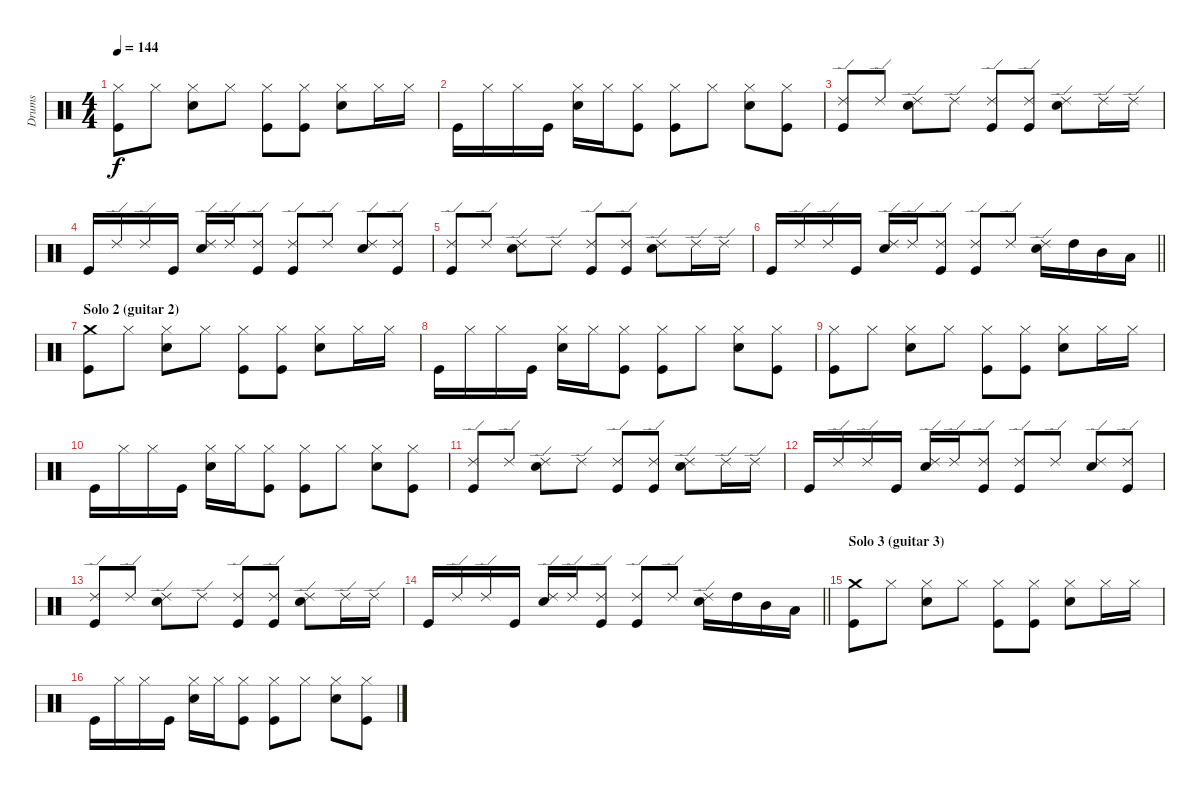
\track ("Drums" "Drums") {instrument percussion}
\staff {score}
\articulation defaults
\ts (4 4)
\tempo 144
\clef neutral
\ks c
("Hi-Hat (closed)" "Kick (hit)").8{dy f} "Hi-Hat (closed)".8 ("Hi-Hat (closed)" "Snare (hit) 2").8 "Hi-Hat (closed)".8 ("Hi-Hat (closed)" "Kick (hit)").8 ("Hi-Hat (closed)" "Kick (hit)").8 ("Hi-Hat (closed)" "Snare (hit) 2").8 "Hi-Hat (closed)".16 "Hi-Hat (closed)".16 |
"Kick (hit)".16 "Hi-Hat (closed)".16 "Hi-Hat (closed)".16 "Kick (hit)".16 ("Hi-Hat (closed)" "Snare (hit) 2").16 "Hi-Hat (closed)".16 ("Hi-Hat (closed)" "Kick (hit)").8 ("Hi-Hat (closed)" "Kick (hit)").8 "Hi-Hat (closed)".8 ("Hi-Hat (closed)" "Snare (hit) 2").8 ("Hi-Hat (closed)" "Kick (hit)").8 |
("Ride (edge) 2" "Kick (hit)").8 "Ride (edge) 2".8 ("Ride (edge) 2" "Snare (hit) 2").8 "Ride (edge) 2".8 ("Ride (edge) 2" "Kick (hit)").8 ("Ride (edge) 2" "Kick (hit)").8 ("Ride (edge) 2" "Snare (hit) 2").8 "Ride (edge) 2".16 "Ride (edge) 2".16 |
"Kick (hit)".16 "Ride (edge) 2".16 "Ride (edge) 2".16 "Kick (hit)".16 ("Ride (edge) 2" "Snare (hit) 2").16 "Ride (edge) 2".16 ("Ride (edge) 2" "Kick (hit)").8 ("Ride (edge) 2" "Kick (hit)").8 "Ride (edge) 2".8 ("Ride (edge) 2" "Snare (hit) 2").8 ("Ride (edge) 2" "Kick (hit)").8 |
("Ride (edge) 2" "Kick (hit)").8 "Ride (edge) 2".8 ("Ride (edge) 2" "Snare (hit) 2").8 "Ride (edge) 2".8 ("Ride (edge) 2" "Kick (hit)").8 ("Ride (edge) 2" "Kick (hit)").8 ("Ride (edge) 2" "Snare (hit) 2").8 "Ride (edge) 2".16 "Ride (edge) 2".16 |
\barLineRight lightlight "Kick (hit)".16 "Ride (edge) 2".16 "Ride (edge) 2".16 "Kick (hit)".16
("Ride (edge) 2" "Snare (hit) 2").16 "Ride (edge) 2".16 ("Ride (edge) 2" "Kick (hit)").8 ("Ride (edge) 2" "Kick (hit)").8 "Ride (edge) 2".8 ("Ride (edge) 2" "Snare (hit) 2").16 "High Tom (hit)".16 "Mid Tom (hit)".16 "Low Tom (hit)".16 |
\section ("" "Solo 2 (guitar 2)")
("Crash medium (hit)" "Kick (hit)").8 "Hi-Hat (closed)".8 ("Hi-Hat (closed)" "Snare (hit) 2").8 "Hi-Hat (closed)".8 ("Hi-Hat (closed)" "Kick (hit)").8 ("Hi-Hat (closed)" "Kick (hit)").8 ("Hi-Hat (closed)" "Snare (hit) 2").8 "Hi-Hat (closed)".16 "Hi-Hat (closed)".16 |
"Kick (hit)".16 "Hi-Hat (closed)".16 "Hi-Hat (closed)".16 "Kick (hit)".16 ("Hi-Hat (closed)" "Snare (hit) 2").16 "Hi-Hat (closed)".16 ("Hi-Hat (closed)" "Kick (hit)").8 ("Hi-Hat (closed)" "Kick (hit)").8 "Hi-Hat (closed)".8 ("Hi-Hat (closed)" "Snare (hit) 2").8 ("Hi-Hat (closed)" "Kick (hit)").8 |
("Hi-Hat (closed)" "Kick (hit)").8 "Hi-Hat (closed)".8 ("Hi-Hat (closed)" "Snare (hit) 2").8 "Hi-Hat (closed)".8 ("Hi-Hat (closed)" "Kick (hit)").8 ("Hi-Hat (closed)" "Kick (hit)").8 ("Hi-Hat (closed)" "Snare (hit) 2").8 "Hi-Hat (closed)".16 "Hi-Hat (closed)".16 |
"Kick (hit)".16 "Hi-Hat (closed)".16 "Hi-Hat (closed)".16 "Kick (hit)".16 ("Hi-Hat (closed)" "Snare (hit) 2").16 "Hi-Hat (closed)".16 ("Hi-Hat (closed)" "Kick (hit)").8 ("Hi-Hat (closed)" "Kick (hit)").8 "Hi-Hat (closed)".8 ("Hi-Hat (closed)" "Snare (hit) 2").8 ("Hi-Hat (closed)" "Kick (hit)").8 |
("Ride (edge) 2" "Kick (hit)").8 "Ride (edge) 2".8 ("Ride (edge) 2" "Snare (hit) 2").8 "Ride (edge) 2".8 ("Ride (edge) 2" "Kick (hit)").8 ("Ride (edge) 2" "Kick (hit)").8 ("Ride (edge) 2" "Snare (hit) 2").8 "Ride (edge) 2".16 "Ride (edge) 2".16 |
"Kick (hit)".16 "Ride (edge) 2".16 "Ride (edge) 2".16 "Kick (hit)".16 ("Ride (edge) 2" "Snare (hit) 2").16 "Ride (edge) 2".16 ("Ride (edge) 2" "Kick (hit)").8 ("Ride (edge) 2" "Kick (hit)").8 "Ride (edge) 2".8 ("Ride (edge) 2" "Snare (hit) 2").8 ("Ride (edge) 2" "Kick (hit)").8 |
("Ride (edge) 2" "Kick (hit)").8 "Ride (edge) 2".8 ("Ride (edge) 2" "Snare (hit) 2").8 "Ride (edge) 2".8 ("Ride (edge) 2" "Kick (hit)").8 ("Ride (edge) 2" "Kick (hit)").8 ("Ride (edge) 2" "Snare (hit) 2").8 "Ride (edge) 2".16 "Ride (edge) 2".16 |
\barLineRight lightlight "Kick (hit)".16 "Ride (edge) 2".16 "Ride (edge) 2".16 "Kick (hit)".16
("Ride (edge) 2" "Snare (hit) 2").16 "Ride (edge) 2".16 ("Ride (edge) 2" "Kick (hit)").8 ("Ride (edge) 2" "Kick (hit)").8 "Ride (edge) 2".8 ("Ride (edge) 2" "Snare (hit) 2").16 "High Tom (hit)".16 "Mid Tom (hit)".16 "Low Tom (hit)".16 |
\section ("" "Solo 3 (guitar 3)")
("Crash medium (hit)" "Kick (hit)").8 "Hi-Hat (closed)".8 ("Hi-Hat (closed)" "Snare (hit) 2").8 "Hi-Hat (closed)".8 ("Hi-Hat (closed)" "Kick (hit)").8 ("Hi-Hat (closed)" "Kick (hit)").8 ("Hi-Hat (closed)" "Snare (hit) 2").8 "Hi-Hat (closed)".16 "Hi-Hat (closed)".16 |
"Kick (hit)".16 "Hi-Hat (closed)".16 "Hi-Hat (closed)".16 "Kick (hit)".16 ("Hi-Hat (closed)" "Snare (hit) 2").16 "Hi-Hat (closed)".16 ("Hi-Hat (closed)" "Kick (hit)").8 ("Hi-Hat (closed)" "Kick (hit)").8 "Hi-Hat (closed)".8 ("Hi-Hat (closed)" "Snare (hit) 2").8 ("Hi-Hat (closed)" "Kick (hit)").8
